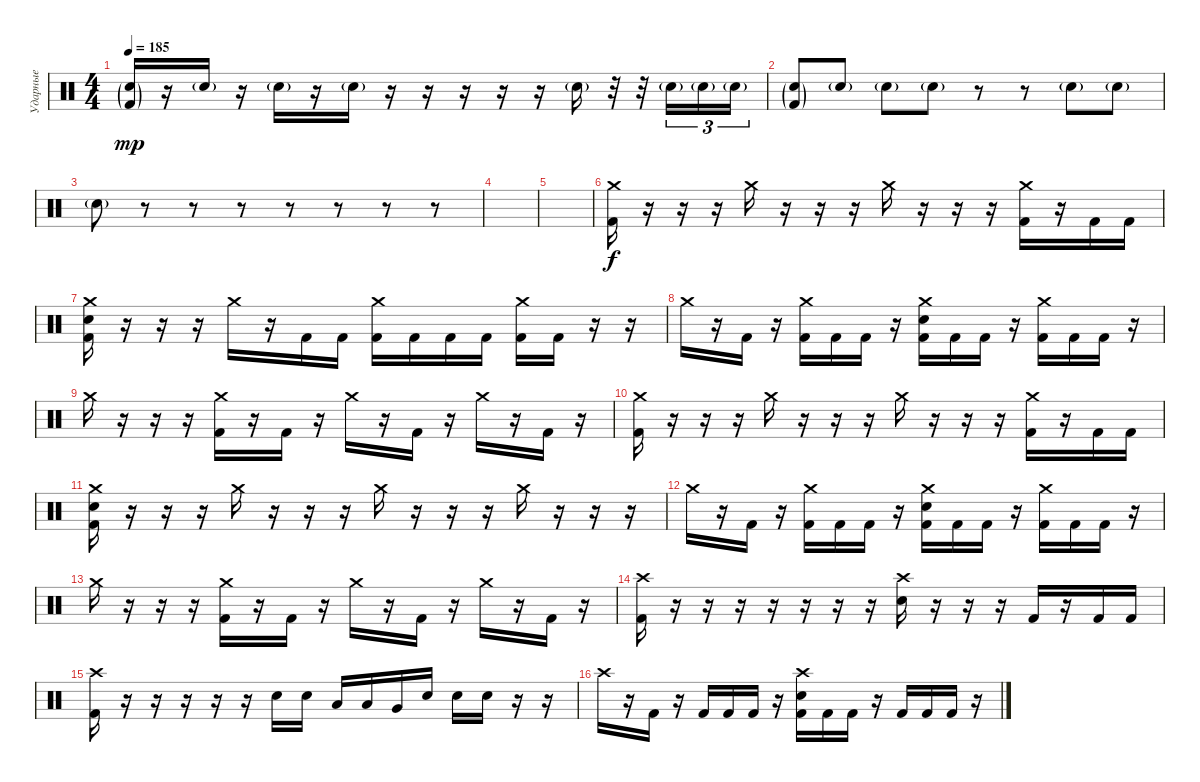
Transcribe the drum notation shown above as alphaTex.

\track ("Ударные" "Ударные") {instrument percussion}
\staff {score}
\articulation defaults
\ts (4 4)
\tempo 185
\clef neutral
\ks c
("Electric Snare (hit)"{g} "Kick (hit) 2"{g}).16{dy mp} r.16 "Electric Snare (hit)"{g}.16 r.16 "Electric Snare (hit)"{g}.16 r.16 "Electric Snare (hit)"{g}.16 r.16 r.16 r.16 r.16 r.16 "Electric Snare (hit)"{g}.16 r.32 r.32 "Electric Snare (hit)"{g}.16{tu (3 2)} "Electric Snare (hit)"{g}.16{tu (3 2)} "Electric Snare (hit)"{g}.16{tu (3 2)} |
("Electric Snare (hit)"{g} "Kick (hit) 2"{g}).8 "Electric Snare (hit)"{g}.8 "Electric Snare (hit)"{g}.8 "Electric Snare (hit)"{g}.8 r.8 r.8 "Electric Snare (hit)"{g}.8 "Electric Snare (hit)"{g}.8 |
"Electric Snare (hit)"{g}.8 r.8 r.8 r.8 r.8 r.8 r.8 r.8 |
|
|
("Crash medium (hit)" "Kick (hit) 2").16{dy f} r.16 r.16 r.16 "Crash medium (hit)".16 r.16 r.16 r.16 "Crash medium (hit)".16 r.16 r.16 r.16 ("Crash medium (hit)" "Kick (hit) 2").16 r.16 "Kick (hit) 2".16 "Kick (hit) 2".16 |
("Crash medium (hit)" "Electric Snare (hit)" "Kick (hit) 2").16 r.16 r.16 r.16 "Crash medium (hit)".16 r.16 "Kick (hit) 2".16 "Kick (hit) 2".16 ("Crash medium (hit)" "Kick (hit) 2").16 "Kick (hit) 2".16 "Kick (hit) 2".16 "Kick (hit) 2".16 ("Crash medium (hit)" "Kick (hit) 2").16 "Kick (hit) 2".16 r.16 r.16 |
"Crash medium (hit)".16 r.16 "Kick (hit) 2".16 r.16 ("Crash medium (hit)" "Kick (hit) 2").16 "Kick (hit) 2".16 "Kick (hit) 2".16 r.16 ("Crash medium (hit)" "Electric Snare (hit)" "Kick (hit) 2").16 "Kick (hit) 2".16 "Kick (hit) 2".16 r.16 ("Crash medium (hit)" "Kick (hit) 2").16 "Kick (hit) 2".16 "Kick (hit) 2".16 r.16 |
"Crash medium (hit)".16 r.16 r.16 r.16 ("Crash medium (hit)" "Kick (hit) 2").16 r.16 "Kick (hit) 2".16 r.16 "Crash medium (hit)".16 r.16 "Kick (hit) 2".16 r.16 "Crash medium (hit)".16 r.16 "Kick (hit) 2".16 r.16 |
("Crash medium (hit)" "Kick (hit) 2").16 r.16 r.16 r.16 "Crash medium (hit)".16 r.16 r.16 r.16 "Crash medium (hit)".16 r.16 r.16 r.16 ("Crash medium (hit)" "Kick (hit) 2").16 r.16 "Kick (hit) 2".16 "Kick (hit) 2".16 |
("Crash medium (hit)" "Electric Snare (hit)" "Kick (hit) 2").16 r.16 r.16 r.16 "Crash medium (hit)".16 r.16 r.16 r.16 "Crash medium (hit)".16 r.16 r.16 r.16 "Crash medium (hit)".16 r.16 r.16 r.16 |
"Crash medium (hit)".16 r.16 "Kick (hit) 2".16 r.16 ("Crash medium (hit)" "Kick (hit) 2").16 "Kick (hit) 2".16 "Kick (hit) 2".16 r.16 ("Crash medium (hit)" "Electric Snare (hit)" "Kick (hit) 2").16 "Kick (hit) 2".16 "Kick (hit) 2".16 r.16 ("Crash medium (hit)" "Kick (hit) 2").16 "Kick (hit) 2".16 "Kick (hit) 2".16 r.16 |
"Crash medium (hit)".16 r.16 r.16 r.16 ("Crash medium (hit)" "Kick (hit) 2").16 r.16 "Kick (hit) 2".16 r.16 "Crash medium (hit)".16 r.16 "Kick (hit) 2".16 r.16 "Crash medium (hit)".16 r.16 "Kick (hit) 2".16 r.16 |
("Crash high (hit)" "Kick (hit) 2").16 r.16 r.16 r.16 r.16 r.16 r.16 r.16 ("Crash high (hit)" "Electric Snare (hit)").16 r.16 r.16 r.16 "Kick (hit) 2".16 r.16 "Kick (hit) 2".16 "Kick (hit) 2".16 |
("Crash high (hit)" "Kick (hit) 2").16 r.16 r.16 r.16 r.16 r.16 "Electric Snare (hit)".16 "Electric Snare (hit)".16 "Low Tom (hit)".16 "Low Tom (hit)".16 "Very Low Tom (hit)".16 "Electric Snare (hit)".16 "Electric Snare (hit)".16 "Electric Snare (hit)".16 r.16 r.16 |
"Crash high (hit)".16 r.16 "Kick (hit) 2".16 r.16 "Kick (hit) 2".16 "Kick (hit) 2".16 "Kick (hit) 2".16 r.16 ("Crash high (hit)" "Electric Snare (hit)" "Kick (hit) 2").16 "Kick (hit) 2".16 "Kick (hit) 2".16 r.16 "Kick (hit) 2".16 "Kick (hit) 2".16 "Kick (hit) 2".16 r.16
